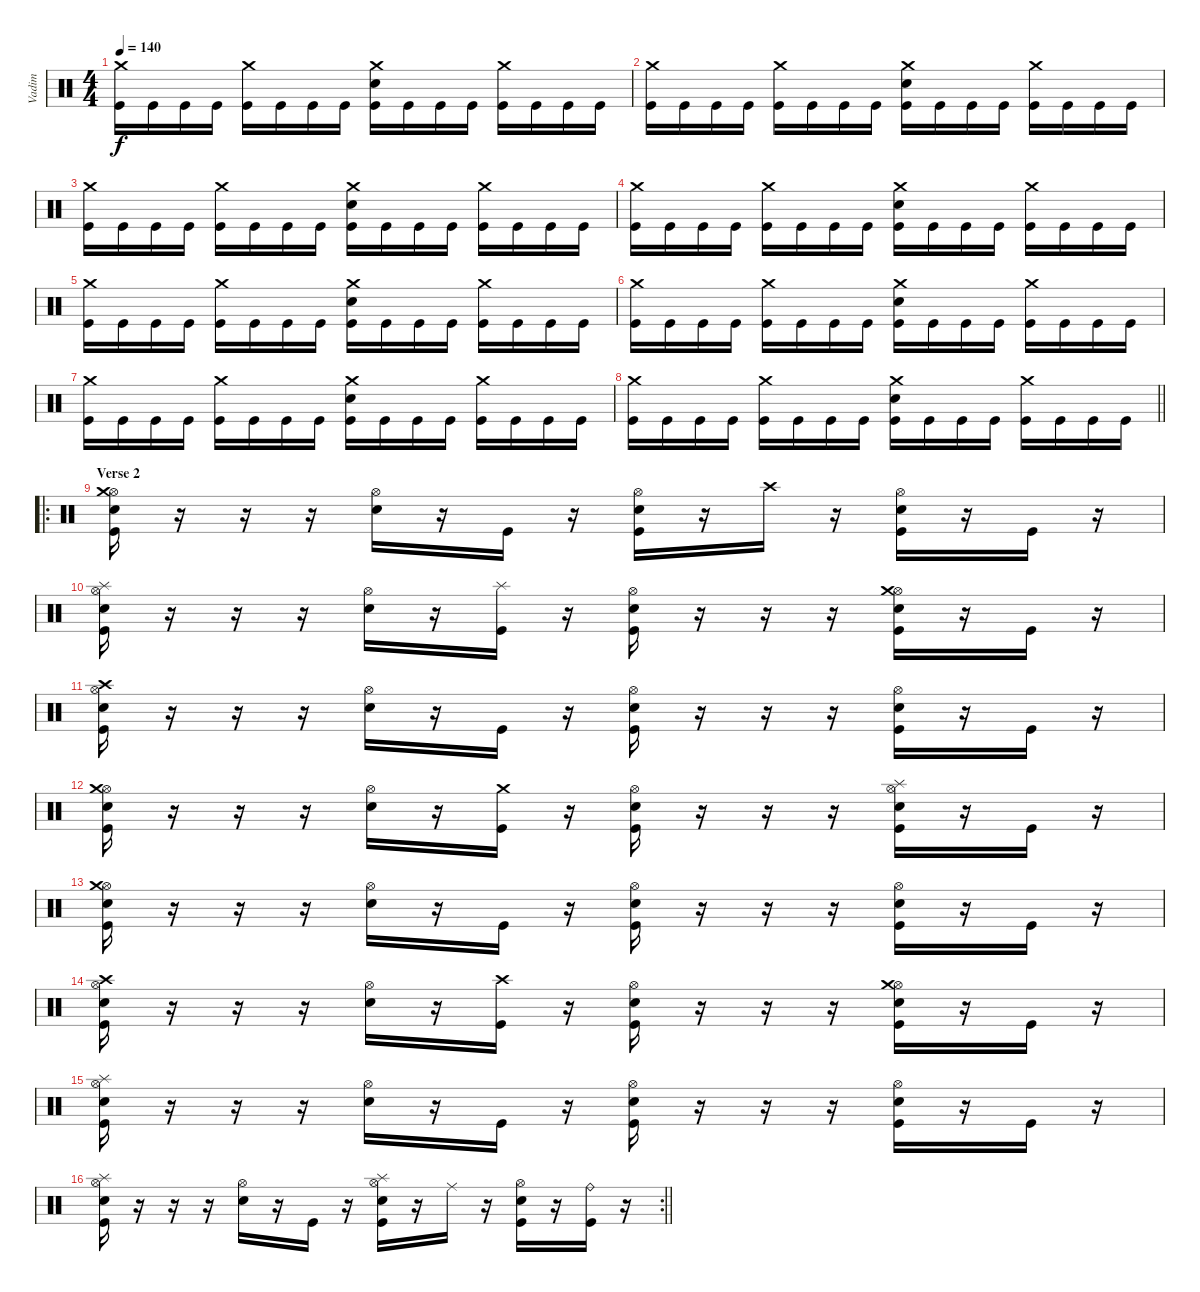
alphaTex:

\track ("Vadim" "Vadim") {instrument percussion}
\staff {score}
\articulation defaults
\ts (4 4)
\tempo 140
\clef neutral
\ks c
("Crash medium (hit)" "Kick (hit)").16{dy f} "Kick (hit)".16 "Kick (hit)".16 "Kick (hit)".16 ("Crash medium (hit)" "Kick (hit)").16 "Kick (hit)".16 "Kick (hit)".16 "Kick (hit)".16 ("Crash medium (hit)" "Electric Snare (hit)" "Kick (hit)").16 "Kick (hit)".16 "Kick (hit)".16 "Kick (hit)".16 ("Crash medium (hit)" "Kick (hit)").16 "Kick (hit)".16 "Kick (hit)".16 "Kick (hit)".16 |
("Crash medium (hit)" "Kick (hit)").16 "Kick (hit)".16 "Kick (hit)".16 "Kick (hit)".16 ("Crash medium (hit)" "Kick (hit)").16 "Kick (hit)".16 "Kick (hit)".16 "Kick (hit)".16 ("Crash medium (hit)" "Electric Snare (hit)" "Kick (hit)").16 "Kick (hit)".16 "Kick (hit)".16 "Kick (hit)".16 ("Crash medium (hit)" "Kick (hit)").16 "Kick (hit)".16 "Kick (hit)".16 "Kick (hit)".16 |
("Crash medium (hit)" "Kick (hit)").16 "Kick (hit)".16 "Kick (hit)".16 "Kick (hit)".16 ("Crash medium (hit)" "Kick (hit)").16 "Kick (hit)".16 "Kick (hit)".16 "Kick (hit)".16 ("Crash medium (hit)" "Electric Snare (hit)" "Kick (hit)").16 "Kick (hit)".16 "Kick (hit)".16 "Kick (hit)".16 ("Crash medium (hit)" "Kick (hit)").16 "Kick (hit)".16 "Kick (hit)".16 "Kick (hit)".16 |
("Crash medium (hit)" "Kick (hit)").16 "Kick (hit)".16 "Kick (hit)".16 "Kick (hit)".16 ("Crash medium (hit)" "Kick (hit)").16 "Kick (hit)".16 "Kick (hit)".16 "Kick (hit)".16 ("Crash medium (hit)" "Electric Snare (hit)" "Kick (hit)").16 "Kick (hit)".16 "Kick (hit)".16 "Kick (hit)".16 ("Crash medium (hit)" "Kick (hit)").16 "Kick (hit)".16 "Kick (hit)".16 "Kick (hit)".16 |
("Crash medium (hit)" "Kick (hit)").16 "Kick (hit)".16 "Kick (hit)".16 "Kick (hit)".16 ("Crash medium (hit)" "Kick (hit)").16 "Kick (hit)".16 "Kick (hit)".16 "Kick (hit)".16 ("Crash medium (hit)" "Electric Snare (hit)" "Kick (hit)").16 "Kick (hit)".16 "Kick (hit)".16 "Kick (hit)".16 ("Crash medium (hit)" "Kick (hit)").16 "Kick (hit)".16 "Kick (hit)".16 "Kick (hit)".16 |
("Crash medium (hit)" "Kick (hit)").16 "Kick (hit)".16 "Kick (hit)".16 "Kick (hit)".16 ("Crash medium (hit)" "Kick (hit)").16 "Kick (hit)".16 "Kick (hit)".16 "Kick (hit)".16 ("Crash medium (hit)" "Electric Snare (hit)" "Kick (hit)").16 "Kick (hit)".16 "Kick (hit)".16 "Kick (hit)".16 ("Crash medium (hit)" "Kick (hit)").16 "Kick (hit)".16 "Kick (hit)".16 "Kick (hit)".16 |
("Crash medium (hit)" "Kick (hit)").16 "Kick (hit)".16 "Kick (hit)".16 "Kick (hit)".16 ("Crash medium (hit)" "Kick (hit)").16 "Kick (hit)".16 "Kick (hit)".16 "Kick (hit)".16 ("Crash medium (hit)" "Electric Snare (hit)" "Kick (hit)").16 "Kick (hit)".16 "Kick (hit)".16 "Kick (hit)".16 ("Crash medium (hit)" "Kick (hit)").16 "Kick (hit)".16 "Kick (hit)".16 "Kick (hit)".16 |
\barLineRight lightlight
("Crash medium (hit)" "Kick (hit)").16 "Kick (hit)".16 "Kick (hit)".16 "Kick (hit)".16 ("Crash medium (hit)" "Kick (hit)").16 "Kick (hit)".16 "Kick (hit)".16 "Kick (hit)".16 ("Crash medium (hit)" "Electric Snare (hit)" "Kick (hit)").16 "Kick (hit)".16 "Kick (hit)".16 "Kick (hit)".16 ("Crash medium (hit)" "Kick (hit)").16 "Kick (hit)".16 "Kick (hit)".16 "Kick (hit)".16 |
\ro
\section ("" "Verse 2")
("Hi-Hat (open)" "Crash medium (hit)" "Electric Snare (hit)" "Kick (hit)").16 r.16 r.16 r.16 ("Hi-Hat (open)" "Electric Snare (hit)").16 r.16 "Kick (hit)".16 r.16 ("Hi-Hat (open)" "Electric Snare (hit)" "Kick (hit)").16 r.16 "Crash high (hit)".16 r.16 ("Hi-Hat (open)" "Electric Snare (hit)" "Kick (hit)").16 r.16 "Kick (hit)".16 r.16 |
("Hi-Hat (open)" "Splash (hit)" "Electric Snare (hit)" "Kick (hit)").16 r.16 r.16 r.16 ("Hi-Hat (open)" "Electric Snare (hit)").16 r.16 ("Splash (hit)" "Kick (hit)").16 r.16 ("Hi-Hat (open)" "Electric Snare (hit)" "Kick (hit)").16 r.16 r.16 r.16 ("Hi-Hat (open)" "Crash medium (hit)" "Electric Snare (hit)" "Kick (hit)").16 r.16 "Kick (hit)".16 r.16 |
("Hi-Hat (open)" "Crash high (hit)" "Electric Snare (hit)" "Kick (hit)").16 r.16 r.16 r.16 ("Hi-Hat (open)" "Electric Snare (hit)").16 r.16 "Kick (hit)".16 r.16 ("Hi-Hat (open)" "Electric Snare (hit)" "Kick (hit)").16 r.16 r.16 r.16 ("Hi-Hat (open)" "Electric Snare (hit)" "Kick (hit)").16 r.16 "Kick (hit)".16 r.16 |
("Hi-Hat (open)" "Crash medium (hit)" "Electric Snare (hit)" "Kick (hit)").16 r.16 r.16 r.16 ("Hi-Hat (open)" "Electric Snare (hit)").16 r.16 ("Crash medium (hit)" "Kick (hit)").16 r.16 ("Hi-Hat (open)" "Electric Snare (hit)" "Kick (hit)").16 r.16 r.16 r.16 ("Hi-Hat (open)" "Splash (hit)" "Electric Snare (hit)" "Kick (hit)").16 r.16 "Kick (hit)".16 r.16 |
("Hi-Hat (open)" "Crash medium (hit)" "Electric Snare (hit)" "Kick (hit)").16 r.16 r.16 r.16 ("Hi-Hat (open)" "Electric Snare (hit)").16 r.16 "Kick (hit)".16 r.16 ("Hi-Hat (open)" "Electric Snare (hit)" "Kick (hit)").16 r.16 r.16 r.16 ("Hi-Hat (open)" "Electric Snare (hit)" "Kick (hit)").16 r.16 "Kick (hit)".16 r.16 |
("Hi-Hat (open)" "Crash high (hit)" "Electric Snare (hit)" "Kick (hit)").16 r.16 r.16 r.16 ("Hi-Hat (open)" "Electric Snare (hit)").16 r.16 ("Crash high (hit)" "Kick (hit)").16 r.16 ("Hi-Hat (open)" "Electric Snare (hit)" "Kick (hit)").16 r.16 r.16 r.16 ("Hi-Hat (open)" "Crash medium (hit)" "Electric Snare (hit)" "Kick (hit)").16 r.16 "Kick (hit)".16 r.16 |
("Hi-Hat (open)" "Splash (hit)" "Electric Snare (hit)" "Kick (hit)").16 r.16 r.16 r.16 ("Hi-Hat (open)" "Electric Snare (hit)").16 r.16 "Kick (hit)".16 r.16 ("Hi-Hat (open)" "Electric Snare (hit)" "Kick (hit)").16 r.16 r.16 r.16 ("Hi-Hat (open)" "Electric Snare (hit)" "Kick (hit)").16 r.16 "Kick (hit)".16 r.16 |
\rc 2
\barLineRight lightlight
("Hi-Hat (open)" "Splash (hit)" "Electric Snare (hit)" "Kick (hit)").16 r.16 r.16 r.16 ("Hi-Hat (open)" "Electric Snare (hit)").16 r.16 "Kick (hit)".16 r.16 ("Hi-Hat (open)" "Splash (hit)" "Electric Snare (hit)" "Kick (hit)").16 r.16 "Ride (middle)".16 r.16 ("Hi-Hat (open)" "Electric Snare (hit)" "Kick (hit)").16 r.16 ("Ride (bell)" "Kick (hit)").16 r.16
